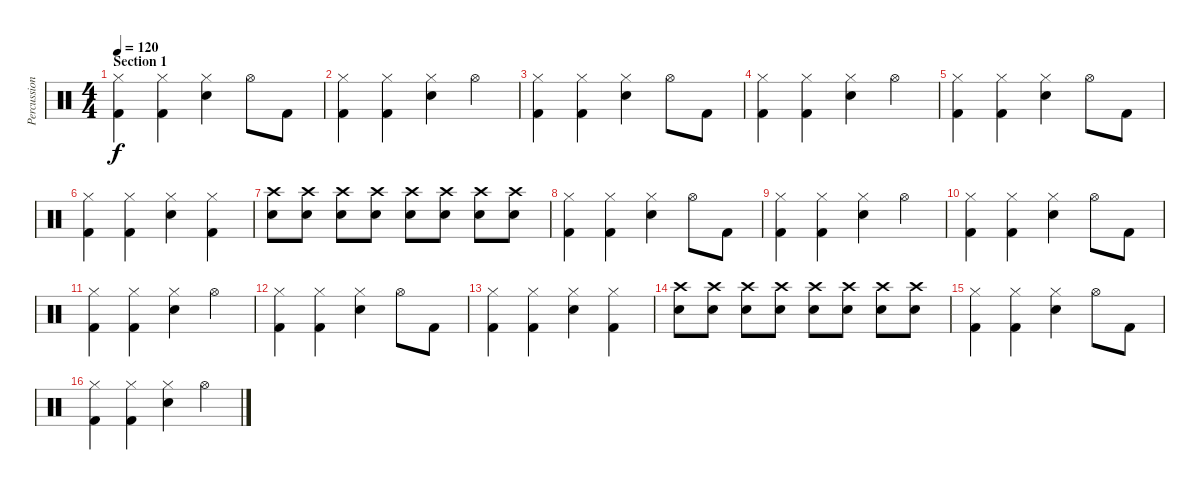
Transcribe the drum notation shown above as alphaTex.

\track ("Percussions" "Percussion") {instrument percussion}
\staff {score}
\articulation defaults
\ts (4 4)
\section ("" "Section 1")
\tempo 120
\clef neutral
\ks c
("Hi-Hat (closed)" "Kick (hit) 2").4{dy f volume 3} ("Hi-Hat (closed)" "Kick (hit) 2").4{volume 16} ("Hi-Hat (closed)" "Snare (hit) 2").4 "Hi-Hat (open)".8 "Kick (hit) 2".8 |
("Hi-Hat (closed)" "Kick (hit) 2").4 ("Hi-Hat (closed)" "Kick (hit) 2").4 ("Hi-Hat (closed)" "Snare (hit) 2").4 "Hi-Hat (open)".4 |
("Hi-Hat (closed)" "Kick (hit) 2").4 ("Hi-Hat (closed)" "Kick (hit) 2").4 ("Hi-Hat (closed)" "Snare (hit) 2").4 "Hi-Hat (open)".8 "Kick (hit) 2".8 |
("Hi-Hat (closed)" "Kick (hit) 2").4 ("Hi-Hat (closed)" "Kick (hit) 2").4 ("Hi-Hat (closed)" "Snare (hit) 2").4 "Hi-Hat (open)".4 |
("Hi-Hat (closed)" "Kick (hit) 2").4 ("Hi-Hat (closed)" "Kick (hit) 2").4 ("Hi-Hat (closed)" "Snare (hit) 2").4 "Hi-Hat (open)".8 "Kick (hit) 2".8 |
("Hi-Hat (closed)" "Kick (hit) 2").4 ("Hi-Hat (closed)" "Kick (hit) 2").4 ("Hi-Hat (closed)" "Snare (hit) 2").4 ("Hi-Hat (closed)" "Kick (hit) 2").4 |
("Crash high (hit)" "Snare (hit) 2").8 ("Crash high (hit)" "Snare (hit) 2").8 ("Crash high (hit)" "Snare (hit) 2").8 ("Crash high (hit)" "Snare (hit) 2").8 ("Crash high (hit)" "Snare (hit) 2").8 ("Crash high (hit)" "Snare (hit) 2").8 ("Crash high (hit)" "Snare (hit) 2").8 ("Crash high (hit)" "Snare (hit) 2").8 |
("Hi-Hat (closed)" "Kick (hit) 2").4 ("Hi-Hat (closed)" "Kick (hit) 2").4 ("Hi-Hat (closed)" "Snare (hit) 2").4 "Hi-Hat (open)".8 "Kick (hit) 2".8 |
("Hi-Hat (closed)" "Kick (hit) 2").4 ("Hi-Hat (closed)" "Kick (hit) 2").4 ("Hi-Hat (closed)" "Snare (hit) 2").4 "Hi-Hat (open)".4 |
("Hi-Hat (closed)" "Kick (hit) 2").4 ("Hi-Hat (closed)" "Kick (hit) 2").4 ("Hi-Hat (closed)" "Snare (hit) 2").4 "Hi-Hat (open)".8 "Kick (hit) 2".8 |
("Hi-Hat (closed)" "Kick (hit) 2").4 ("Hi-Hat (closed)" "Kick (hit) 2").4 ("Hi-Hat (closed)" "Snare (hit) 2").4 "Hi-Hat (open)".4 |
("Hi-Hat (closed)" "Kick (hit) 2").4 ("Hi-Hat (closed)" "Kick (hit) 2").4 ("Hi-Hat (closed)" "Snare (hit) 2").4 "Hi-Hat (open)".8 "Kick (hit) 2".8 |
("Hi-Hat (closed)" "Kick (hit) 2").4 ("Hi-Hat (closed)" "Kick (hit) 2").4 ("Hi-Hat (closed)" "Snare (hit) 2").4 ("Hi-Hat (closed)" "Kick (hit) 2").4 |
("Crash high (hit)" "Snare (hit) 2").8 ("Crash high (hit)" "Snare (hit) 2").8 ("Crash high (hit)" "Snare (hit) 2").8 ("Crash high (hit)" "Snare (hit) 2").8 ("Crash high (hit)" "Snare (hit) 2").8 ("Crash high (hit)" "Snare (hit) 2").8 ("Crash high (hit)" "Snare (hit) 2").8 ("Crash high (hit)" "Snare (hit) 2").8 |
("Hi-Hat (closed)" "Kick (hit) 2").4 ("Hi-Hat (closed)" "Kick (hit) 2").4 ("Hi-Hat (closed)" "Snare (hit) 2").4 "Hi-Hat (open)".8 "Kick (hit) 2".8 |
("Hi-Hat (closed)" "Kick (hit) 2").4 ("Hi-Hat (closed)" "Kick (hit) 2").4 ("Hi-Hat (closed)" "Snare (hit) 2").4 "Hi-Hat (open)".4
